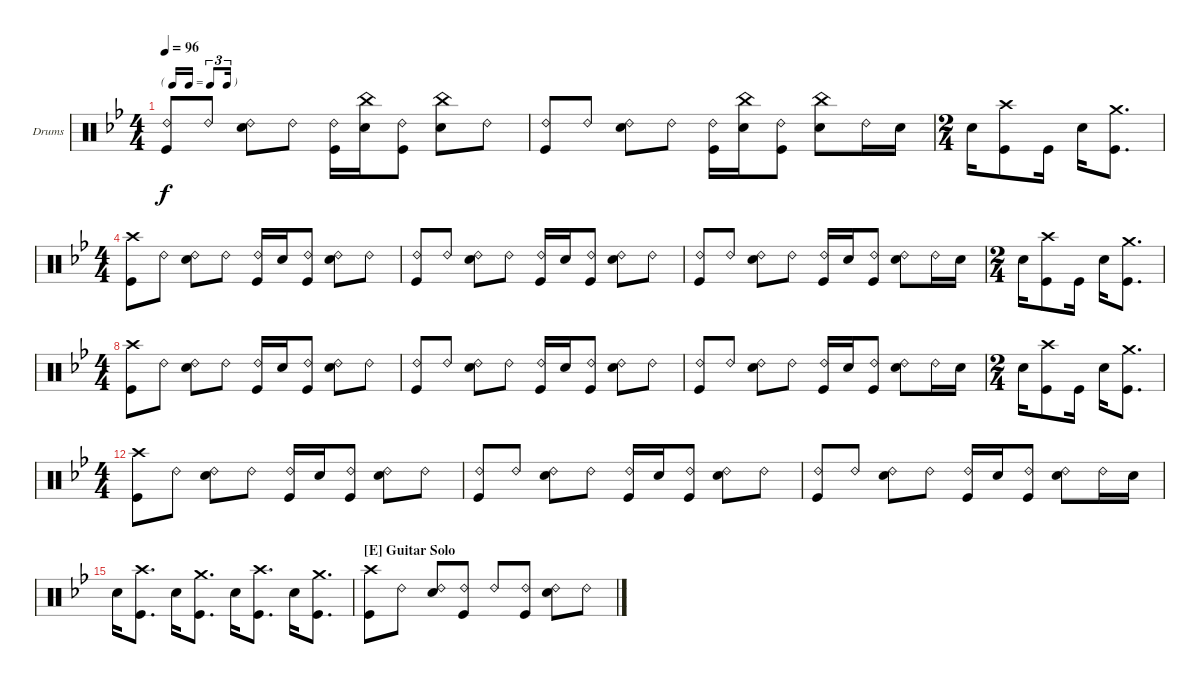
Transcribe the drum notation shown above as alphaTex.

\bracketExtendMode nobrackets
\firstSystemTrackNameOrientation horizontal
\otherSystemsTrackNameOrientation horizontal
\defaultBarNumberDisplay FirstOfSystem
\track ("Randy Castillo" "Drums") {instrument percussion}
\staff {score}
\articulation defaults
\ts (4 4)
\tf triplet16th
\tempo 96
\clef neutral
\scale
0.514445
\ks bb
("Kick (hit)" "Ride (bell) 2").8{dy f} "Ride (bell) 2".8 ("Snare (hit) 2" "Ride (bell) 2").8 "Ride (bell) 2".8 ("Ride (bell) 2" "Kick (hit)").16 ("Snare (hit) 2" "China (hit)").16 ("Kick (hit)" "Ride (bell) 2").8 ("Snare (hit) 2" "China (hit)").8 "Ride (bell) 2".8 |
\scale
0.490403 ("Kick (hit)" "Ride (bell) 2").8 "Ride (bell) 2".8 ("Snare (hit) 2" "Ride (bell) 2").8 "Ride (bell) 2".8 ("Ride (bell) 2" "Kick (hit)").16 ("Snare (hit) 2" "China (hit)").16 ("Kick (hit)" "Ride (bell) 2").8 ("Snare (hit) 2" "China (hit)").8 "Ride (bell) 2".16 "Snare (hit) 2".16 |
\ts (2 4)
\scale
0.509616 "Snare (hit) 2".16 ("Kick (hit)" "Crash high (hit)").8 "Kick (hit)".16 "Snare (hit) 2".16 ("Kick (hit)" "Crash medium (hit)").8{d} |
\ts (4 4)
\scale
0.492822 ("Kick (hit)" "Crash high (hit)").8 "Ride (bell) 2".8 ("Snare (hit) 2" "Ride (bell) 2").8 "Ride (bell) 2".8 ("Ride (bell) 2" "Kick (hit)").16 "Snare (hit) 2".16 ("Kick (hit)" "Ride (bell) 2").8 ("Snare (hit) 2" "Ride (bell) 2").8 "Ride (bell) 2".8 |
\scale
0.506667 ("Kick (hit)" "Ride (bell) 2").8 "Ride (bell) 2".8 ("Snare (hit) 2" "Ride (bell) 2").8 "Ride (bell) 2".8 ("Ride (bell) 2" "Kick (hit)").16 "Snare (hit) 2".16 ("Kick (hit)" "Ride (bell) 2").8 ("Snare (hit) 2" "Ride (bell) 2").8 "Ride (bell) 2".8 |
\scale
0.49731 ("Kick (hit)" "Ride (bell) 2").8 "Ride (bell) 2".8 ("Snare (hit) 2" "Ride (bell) 2").8 "Ride (bell) 2".8 ("Ride (bell) 2" "Kick (hit)").16 "Snare (hit) 2".16 ("Kick (hit)" "Ride (bell) 2").8 ("Snare (hit) 2" "Ride (bell) 2").8 "Ride (bell) 2".16 "Snare (hit) 2".16 |
\ts (2 4)
\scale
0.502711 "Snare (hit) 2".16 ("Kick (hit)" "Crash high (hit)").8 "Kick (hit)".16 "Snare (hit) 2".16 ("Kick (hit)" "Crash medium (hit)").8{d} |
\ts (4 4)
\scale
0.498359 ("Kick (hit)" "Crash high (hit)").8 "Ride (bell) 2".8 ("Snare (hit) 2" "Ride (bell) 2").8 "Ride (bell) 2".8 ("Ride (bell) 2" "Kick (hit)").16 "Snare (hit) 2".16 ("Kick (hit)" "Ride (bell) 2").8 ("Snare (hit) 2" "Ride (bell) 2").8 "Ride (bell) 2".8 |
\scale
0.501159 ("Kick (hit)" "Ride (bell) 2").8 "Ride (bell) 2".8 ("Snare (hit) 2" "Ride (bell) 2").8 "Ride (bell) 2".8 ("Ride (bell) 2" "Kick (hit)").16 "Snare (hit) 2".16 ("Kick (hit)" "Ride (bell) 2").8 ("Snare (hit) 2" "Ride (bell) 2").8 "Ride (bell) 2".8 |
\scale
0.495928 ("Kick (hit)" "Ride (bell) 2").8 "Ride (bell) 2".8 ("Snare (hit) 2" "Ride (bell) 2").8 "Ride (bell) 2".8 ("Ride (bell) 2" "Kick (hit)").16 "Snare (hit) 2".16 ("Kick (hit)" "Ride (bell) 2").8 ("Snare (hit) 2" "Ride (bell) 2").8 "Ride (bell) 2".16 "Snare (hit) 2".16 |
\ts (2 4)
\scale
0.504092 "Snare (hit) 2".16 ("Kick (hit)" "Crash high (hit)").8 "Kick (hit)".16 "Snare (hit) 2".16 ("Kick (hit)" "Crash medium (hit)").8{d} |
\ts (4 4)
\scale
0.495591 ("Kick (hit)" "Crash high (hit)").8 "Ride (bell) 2".8 ("Snare (hit) 2" "Ride (bell) 2").8 "Ride (bell) 2".8 ("Ride (bell) 2" "Kick (hit)").16 "Snare (hit) 2".16 ("Kick (hit)" "Ride (bell) 2").8 ("Snare (hit) 2" "Ride (bell) 2").8 "Ride (bell) 2".8 |
\scale
0.503913 ("Kick (hit)" "Ride (bell) 2").8 "Ride (bell) 2".8 ("Snare (hit) 2" "Ride (bell) 2").8 "Ride (bell) 2".8 ("Ride (bell) 2" "Kick (hit)").16 "Snare (hit) 2".16 ("Kick (hit)" "Ride (bell) 2").8 ("Snare (hit) 2" "Ride (bell) 2").8 "Ride (bell) 2".8 |
\scale
0.501808 ("Kick (hit)" "Ride (bell) 2").8 "Ride (bell) 2".8 ("Snare (hit) 2" "Ride (bell) 2").8 "Ride (bell) 2".8 ("Ride (bell) 2" "Kick (hit)").16 "Snare (hit) 2".16 ("Kick (hit)" "Ride (bell) 2").8 ("Snare (hit) 2" "Ride (bell) 2").8 "Ride (bell) 2".16 "Snare (hit) 2".16 |
\scale
0.497245 "Snare (hit) 2".16 ("Kick (hit)" "Crash high (hit)").8{d} "Snare (hit) 2".16 ("Kick (hit)" "Crash medium (hit)").8{d} "Snare (hit) 2".16 ("Kick (hit)" "Crash high (hit)").8{d} "Snare (hit) 2".16 ("Crash medium (hit)" "Kick (hit)").8{d} |
\section ("E" "Guitar Solo")
\scale
0.496624 ("Kick (hit)" "Crash high (hit)").8 "Ride (bell) 2".8 ("Snare (hit) 2" "Ride (bell) 2").8 ("Kick (hit)" "Ride (bell) 2").8 "Ride (bell) 2".8 ("Kick (hit)" "Ride (bell) 2").8 ("Snare (hit) 2" "Ride (bell) 2").8 "Ride (bell) 2".8
